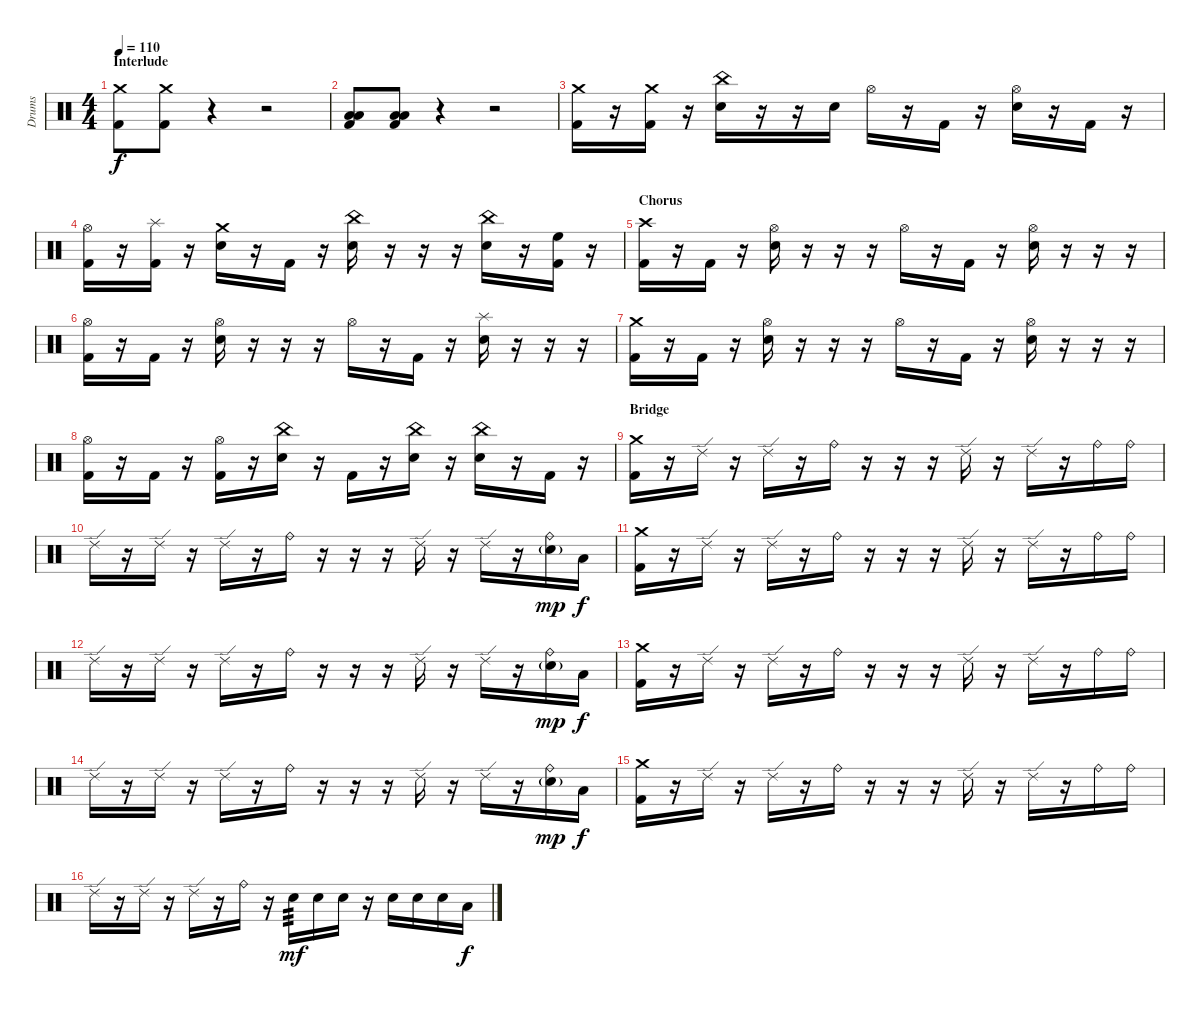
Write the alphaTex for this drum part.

\track ("Drums" "Drums") {instrument percussion}
\staff {score}
\articulation defaults
\ts (4 4)
\section ("" "Interlude")
\tempo 110
\clef neutral
\ks c
("Crash medium (hit)" "Kick (hit) 2").8{dy f} ("Crash medium (hit)" "Kick (hit) 2").8 r.4 r.2 |
("Low Tom (hit)" "Low Floor Tom (hit)" "Kick (hit) 2").8 ("Low Tom (hit)" "Low Floor Tom (hit)" "Kick (hit) 2").8 r.4 r.2 |
("Crash medium (hit)" "Kick (hit) 2").16 r.16 ("Crash medium (hit)" "Kick (hit) 2").16 r.16 ("China (hit)" "Electric Snare (hit)").16 r.16 r.16 "Electric Snare (hit)".16 "Hi-Hat (open)".16 r.16 "Kick (hit) 2".16 r.16 ("Hi-Hat (open)" "Electric Snare (hit)").16 r.16 "Kick (hit) 2".16 r.16 |
("Hi-Hat (open)" "Kick (hit) 2").16 r.16 ("Splash (hit)" "Kick (hit) 2").16 r.16 ("Crash medium (hit)" "Electric Snare (hit)").16 r.16 "Kick (hit) 2".16 r.16 ("China (hit)" "Electric Snare (hit)").16 r.16 r.16 r.16 ("China (hit)" "Electric Snare (hit)").16 r.16 ("High Floor Tom (hit)" "Kick (hit) 2").16 r.16 |
\section ("" "Chorus")
("Crash high (hit)" "Kick (hit) 2").16 r.16 "Kick (hit) 2".16 r.16 ("Hi-Hat (open)" "Electric Snare (hit)").16 r.16 r.16 r.16 "Hi-Hat (open)".16 r.16 "Kick (hit) 2".16 r.16 ("Hi-Hat (open)" "Electric Snare (hit)").16 r.16 r.16 r.16 |
("Hi-Hat (open)" "Kick (hit) 2").16 r.16 "Kick (hit) 2".16 r.16 ("Hi-Hat (open)" "Electric Snare (hit)").16 r.16 r.16 r.16 "Hi-Hat (open)".16 r.16 "Kick (hit) 2".16 r.16 ("Splash (hit)" "Electric Snare (hit)").16 r.16 r.16 r.16 |
("Crash medium (hit)" "Kick (hit) 2").16 r.16 "Kick (hit) 2".16 r.16 ("Hi-Hat (open)" "Electric Snare (hit)").16 r.16 r.16 r.16 "Hi-Hat (open)".16 r.16 "Kick (hit) 2".16 r.16 ("Hi-Hat (open)" "Electric Snare (hit)").16 r.16 r.16 r.16 |
("Hi-Hat (open)" "Kick (hit) 2").16 r.16 "Kick (hit) 2".16 r.16 ("Hi-Hat (open)" "Kick (hit) 2").16 r.16 ("China (hit)" "Electric Snare (hit)").16 r.16 "Kick (hit) 2".16 r.16 ("China (hit)" "Electric Snare (hit)").16 r.16 ("China (hit)" "Electric Snare (hit)").16 r.16 "Kick (hit) 2".16 r.16 |
\section ("" "Bridge")
("Crash medium (hit)" "Kick (hit) 2").16 r.16 "Ride (edge) 2".16 r.16 "Ride (edge) 2".16 r.16 "Ride (bell)".16 r.16 r.16 r.16 "Ride (edge) 2".16 r.16 "Ride (edge) 2".16 r.16 "Ride (bell)".16 "Ride (bell)".16 |
"Ride (edge) 2".16 r.16 "Ride (edge) 2".16 r.16 "Ride (edge) 2".16 r.16 "Ride (bell)".16 r.16 r.16 r.16 "Ride (edge) 2".16 r.16 "Ride (edge) 2".16 r.16 ("Ride (bell)" "Electric Snare (hit)"{g}).16{dy mp} "Low Floor Tom (hit)".16{dy f} |
("Crash medium (hit)" "Kick (hit) 2").16 r.16 "Ride (edge) 2".16 r.16 "Ride (edge) 2".16 r.16 "Ride (bell)".16 r.16 r.16 r.16 "Ride (edge) 2".16 r.16 "Ride (edge) 2".16 r.16 "Ride (bell)".16 "Ride (bell)".16 |
"Ride (edge) 2".16 r.16 "Ride (edge) 2".16 r.16 "Ride (edge) 2".16 r.16 "Ride (bell)".16 r.16 r.16 r.16 "Ride (edge) 2".16 r.16 "Ride (edge) 2".16 r.16 ("Ride (bell)" "Electric Snare (hit)"{g}).16{dy mp} "Low Floor Tom (hit)".16{dy f} |
("Crash medium (hit)" "Kick (hit) 2").16 r.16 "Ride (edge) 2".16 r.16 "Ride (edge) 2".16 r.16 "Ride (bell)".16 r.16 r.16 r.16 "Ride (edge) 2".16 r.16 "Ride (edge) 2".16 r.16 "Ride (bell)".16 "Ride (bell)".16 |
"Ride (edge) 2".16 r.16 "Ride (edge) 2".16 r.16 "Ride (edge) 2".16 r.16 "Ride (bell)".16 r.16 r.16 r.16 "Ride (edge) 2".16 r.16 "Ride (edge) 2".16 r.16 ("Ride (bell)" "Electric Snare (hit)"{g}).16{dy mp} "Low Floor Tom (hit)".16{dy f} |
("Crash medium (hit)" "Kick (hit) 2").16 r.16 "Ride (edge) 2".16 r.16 "Ride (edge) 2".16 r.16 "Ride (bell)".16 r.16 r.16 r.16 "Ride (edge) 2".16 r.16 "Ride (edge) 2".16 r.16 "Ride (bell)".16 "Ride (bell)".16 |
"Ride (edge) 2".16 r.16 "Ride (edge) 2".16 r.16 "Ride (edge) 2".16 r.16 "Ride (bell)".16 r.16 "Electric Snare (hit)".16{tp 3 dy mf} "Electric Snare (hit)".16 "Electric Snare (hit)".16 r.16 "Electric Snare (hit)".16 "Electric Snare (hit)".16 "Electric Snare (hit)".16 "Low Floor Tom (hit)".16{dy f}
